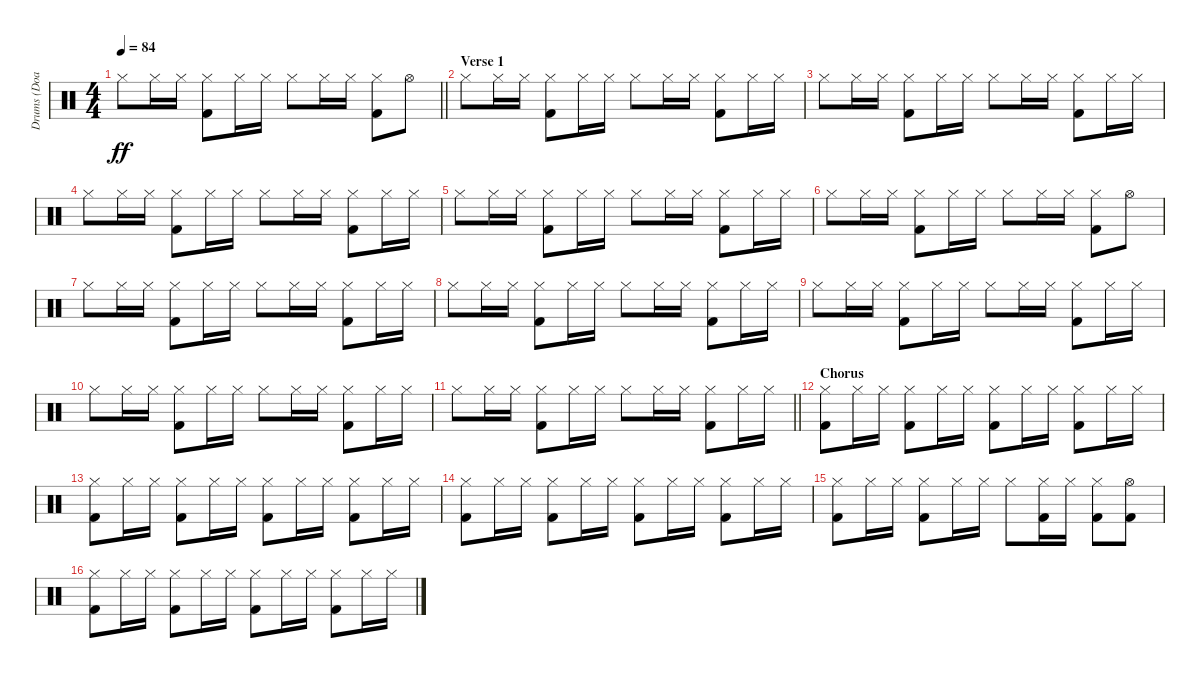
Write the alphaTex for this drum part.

\track ("Drums (Doane Perry)" "Drums (Doa") {instrument percussion}
\staff {score}
\articulation defaults
\ts (4 4)
\tempo 84
\clef neutral
\barLineRight lightlight
\ks c "Hi-Hat (closed)".8{dy ff} "Hi-Hat (closed)".16 "Hi-Hat (closed)".16
("Hi-Hat (closed)" "Kick (hit) 2").8 "Hi-Hat (closed)".16 "Hi-Hat (closed)".16 "Hi-Hat (closed)".8 "Hi-Hat (closed)".16 "Hi-Hat (closed)".16 ("Hi-Hat (closed)" "Kick (hit) 2").8 "Hi-Hat (open)".8 |
\section ("" "Verse 1")
"Hi-Hat (closed)".8 "Hi-Hat (closed)".16 "Hi-Hat (closed)".16 ("Hi-Hat (closed)" "Kick (hit) 2").8 "Hi-Hat (closed)".16 "Hi-Hat (closed)".16 "Hi-Hat (closed)".8 "Hi-Hat (closed)".16 "Hi-Hat (closed)".16 ("Hi-Hat (closed)" "Kick (hit) 2").8 "Hi-Hat (closed)".16 "Hi-Hat (closed)".16 |
"Hi-Hat (closed)".8 "Hi-Hat (closed)".16 "Hi-Hat (closed)".16 ("Hi-Hat (closed)" "Kick (hit) 2").8 "Hi-Hat (closed)".16 "Hi-Hat (closed)".16 "Hi-Hat (closed)".8 "Hi-Hat (closed)".16 "Hi-Hat (closed)".16 ("Hi-Hat (closed)" "Kick (hit) 2").8 "Hi-Hat (closed)".16 "Hi-Hat (closed)".16 |
"Hi-Hat (closed)".8 "Hi-Hat (closed)".16 "Hi-Hat (closed)".16 ("Hi-Hat (closed)" "Kick (hit) 2").8 "Hi-Hat (closed)".16 "Hi-Hat (closed)".16 "Hi-Hat (closed)".8 "Hi-Hat (closed)".16 "Hi-Hat (closed)".16 ("Hi-Hat (closed)" "Kick (hit) 2").8 "Hi-Hat (closed)".16 "Hi-Hat (closed)".16 |
"Hi-Hat (closed)".8 "Hi-Hat (closed)".16 "Hi-Hat (closed)".16 ("Hi-Hat (closed)" "Kick (hit) 2").8 "Hi-Hat (closed)".16 "Hi-Hat (closed)".16 "Hi-Hat (closed)".8 "Hi-Hat (closed)".16 "Hi-Hat (closed)".16 ("Hi-Hat (closed)" "Kick (hit) 2").8 "Hi-Hat (closed)".16 "Hi-Hat (closed)".16 |
"Hi-Hat (closed)".8 "Hi-Hat (closed)".16 "Hi-Hat (closed)".16 ("Hi-Hat (closed)" "Kick (hit) 2").8 "Hi-Hat (closed)".16 "Hi-Hat (closed)".16 "Hi-Hat (closed)".8 "Hi-Hat (closed)".16 "Hi-Hat (closed)".16 ("Hi-Hat (closed)" "Kick (hit) 2").8 "Hi-Hat (open)".8 |
"Hi-Hat (closed)".8 "Hi-Hat (closed)".16 "Hi-Hat (closed)".16 ("Hi-Hat (closed)" "Kick (hit) 2").8 "Hi-Hat (closed)".16 "Hi-Hat (closed)".16 "Hi-Hat (closed)".8 "Hi-Hat (closed)".16 "Hi-Hat (closed)".16 ("Hi-Hat (closed)" "Kick (hit) 2").8 "Hi-Hat (closed)".16 "Hi-Hat (closed)".16 |
"Hi-Hat (closed)".8 "Hi-Hat (closed)".16 "Hi-Hat (closed)".16 ("Hi-Hat (closed)" "Kick (hit) 2").8 "Hi-Hat (closed)".16 "Hi-Hat (closed)".16 "Hi-Hat (closed)".8 "Hi-Hat (closed)".16 "Hi-Hat (closed)".16 ("Hi-Hat (closed)" "Kick (hit) 2").8 "Hi-Hat (closed)".16 "Hi-Hat (closed)".16 |
"Hi-Hat (closed)".8 "Hi-Hat (closed)".16 "Hi-Hat (closed)".16 ("Hi-Hat (closed)" "Kick (hit) 2").8 "Hi-Hat (closed)".16 "Hi-Hat (closed)".16 "Hi-Hat (closed)".8 "Hi-Hat (closed)".16 "Hi-Hat (closed)".16 ("Hi-Hat (closed)" "Kick (hit) 2").8 "Hi-Hat (closed)".16 "Hi-Hat (closed)".16 |
"Hi-Hat (closed)".8 "Hi-Hat (closed)".16 "Hi-Hat (closed)".16 ("Hi-Hat (closed)" "Kick (hit) 2").8 "Hi-Hat (closed)".16 "Hi-Hat (closed)".16 "Hi-Hat (closed)".8 "Hi-Hat (closed)".16 "Hi-Hat (closed)".16 ("Hi-Hat (closed)" "Kick (hit) 2").8 "Hi-Hat (closed)".16 "Hi-Hat (closed)".16 |
\barLineRight lightlight "Hi-Hat (closed)".8 "Hi-Hat (closed)".16 "Hi-Hat (closed)".16
("Hi-Hat (closed)" "Kick (hit) 2").8 "Hi-Hat (closed)".16 "Hi-Hat (closed)".16 "Hi-Hat (closed)".8 "Hi-Hat (closed)".16 "Hi-Hat (closed)".16 ("Hi-Hat (closed)" "Kick (hit) 2").8 "Hi-Hat (closed)".16 "Hi-Hat (closed)".16 |
\section ("" "Chorus")
("Hi-Hat (closed)" "Kick (hit) 2").8 "Hi-Hat (closed)".16 "Hi-Hat (closed)".16 ("Hi-Hat (closed)" "Kick (hit) 2").8 "Hi-Hat (closed)".16 "Hi-Hat (closed)".16 ("Hi-Hat (closed)" "Kick (hit) 2").8 "Hi-Hat (closed)".16 "Hi-Hat (closed)".16 ("Hi-Hat (closed)" "Kick (hit) 2").8 "Hi-Hat (closed)".16 "Hi-Hat (closed)".16 |
("Hi-Hat (closed)" "Kick (hit) 2").8 "Hi-Hat (closed)".16 "Hi-Hat (closed)".16 ("Hi-Hat (closed)" "Kick (hit) 2").8 "Hi-Hat (closed)".16 "Hi-Hat (closed)".16 ("Hi-Hat (closed)" "Kick (hit) 2").8 "Hi-Hat (closed)".16 "Hi-Hat (closed)".16 ("Hi-Hat (closed)" "Kick (hit) 2").8 "Hi-Hat (closed)".16 "Hi-Hat (closed)".16 |
("Hi-Hat (closed)" "Kick (hit) 2").8 "Hi-Hat (closed)".16 "Hi-Hat (closed)".16 ("Hi-Hat (closed)" "Kick (hit) 2").8 "Hi-Hat (closed)".16 "Hi-Hat (closed)".16 ("Hi-Hat (closed)" "Kick (hit) 2").8 "Hi-Hat (closed)".16 "Hi-Hat (closed)".16 ("Hi-Hat (closed)" "Kick (hit) 2").8 "Hi-Hat (closed)".16 "Hi-Hat (closed)".16 |
("Hi-Hat (closed)" "Kick (hit) 2").8 "Hi-Hat (closed)".16 "Hi-Hat (closed)".16 ("Hi-Hat (closed)" "Kick (hit) 2").8 "Hi-Hat (closed)".16 "Hi-Hat (closed)".16 "Hi-Hat (closed)".8 ("Hi-Hat (closed)" "Kick (hit) 2").16 "Hi-Hat (closed)".16 ("Hi-Hat (closed)" "Kick (hit) 2").8 ("Hi-Hat (open)" "Kick (hit) 2").8 |
("Hi-Hat (closed)" "Kick (hit) 2").8 "Hi-Hat (closed)".16 "Hi-Hat (closed)".16 ("Hi-Hat (closed)" "Kick (hit) 2").8 "Hi-Hat (closed)".16 "Hi-Hat (closed)".16 ("Hi-Hat (closed)" "Kick (hit) 2").8 "Hi-Hat (closed)".16 "Hi-Hat (closed)".16 ("Hi-Hat (closed)" "Kick (hit) 2").8 "Hi-Hat (closed)".16 "Hi-Hat (closed)".16
